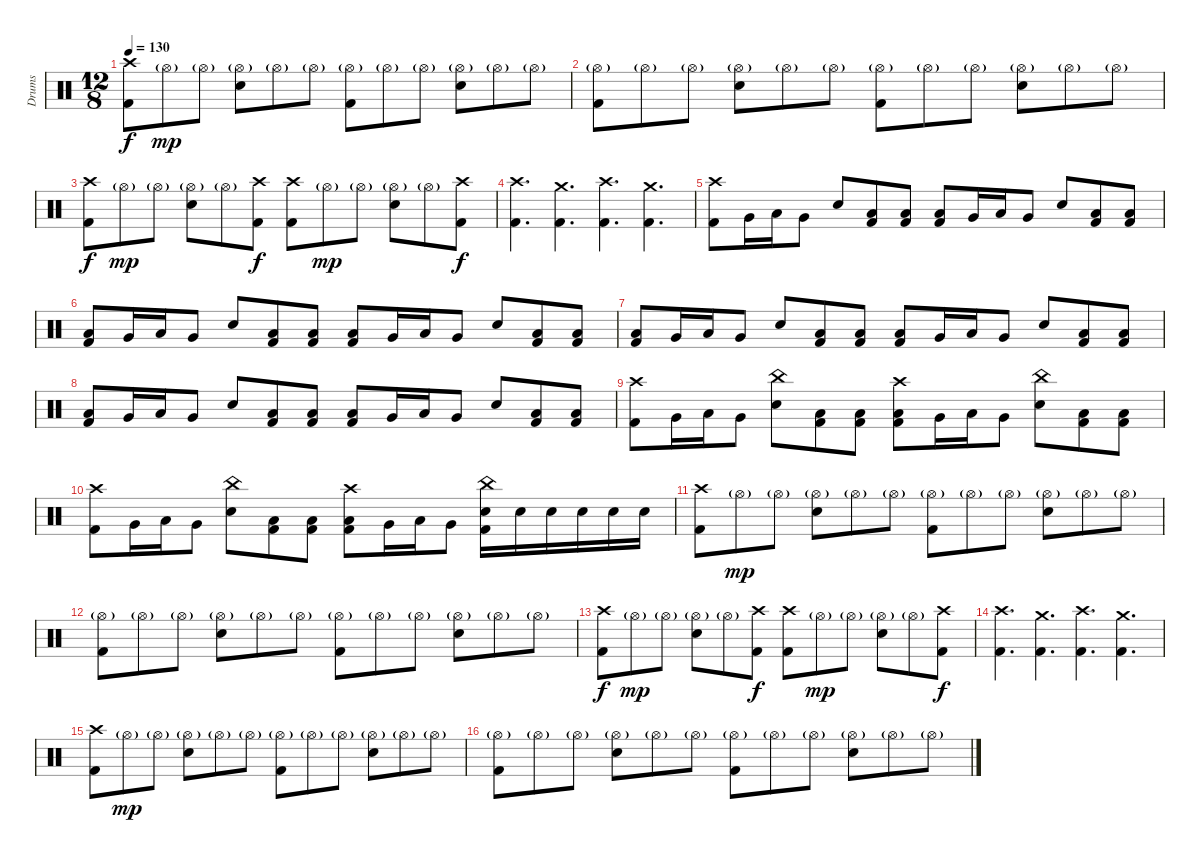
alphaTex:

\track ("Drums" "Drums") {instrument percussion}
\staff {score}
\articulation defaults
\ts (12 8)
\tempo 130
\clef neutral
\ks c
("Crash high (hit)" "Kick (hit) 2").8{dy f} "Hi-Hat (open)"{g}.8{dy mp} "Hi-Hat (open)"{g}.8 ("Hi-Hat (open)"{g} "Electric Snare (hit)").8 "Hi-Hat (open)"{g}.8 "Hi-Hat (open)"{g}.8 ("Hi-Hat (open)"{g} "Kick (hit) 2").8 "Hi-Hat (open)"{g}.8 "Hi-Hat (open)"{g}.8 ("Hi-Hat (open)"{g} "Electric Snare (hit)").8 "Hi-Hat (open)"{g}.8 "Hi-Hat (open)"{g}.8 |
("Hi-Hat (open)"{g} "Kick (hit) 2").8 "Hi-Hat (open)"{g}.8 "Hi-Hat (open)"{g}.8 ("Hi-Hat (open)"{g} "Electric Snare (hit)").8 "Hi-Hat (open)"{g}.8 "Hi-Hat (open)"{g}.8 ("Hi-Hat (open)"{g} "Kick (hit) 2").8 "Hi-Hat (open)"{g}.8 "Hi-Hat (open)"{g}.8 ("Hi-Hat (open)"{g} "Electric Snare (hit)").8 "Hi-Hat (open)"{g}.8 "Hi-Hat (open)"{g}.8 |
("Crash high (hit)" "Kick (hit) 2").8{dy f} "Hi-Hat (open)"{g}.8{dy mp} "Hi-Hat (open)"{g}.8 ("Hi-Hat (open)"{g} "Electric Snare (hit)").8 "Hi-Hat (open)"{g}.8 ("Crash high (hit)" "Kick (hit) 2").8{dy f} ("Crash high (hit)" "Kick (hit) 2").8 "Hi-Hat (open)"{g}.8{dy mp} "Hi-Hat (open)"{g}.8 ("Hi-Hat (open)"{g} "Electric Snare (hit)").8 "Hi-Hat (open)"{g}.8 ("Crash high (hit)" "Kick (hit) 2").8{dy f} |
("Crash high (hit)" "Kick (hit) 2").4{d} ("Crash medium (hit)" "Kick (hit) 2").4{d} ("Crash high (hit)" "Kick (hit) 2").4{d} ("Crash medium (hit)" "Kick (hit) 2").4{d} |
("Crash high (hit)" "Kick (hit) 2").8 "Very Low Tom (hit)".16 "Low Tom (hit)".16 "Very Low Tom (hit)".8 "Electric Snare (hit)".8 ("Low Floor Tom (hit)" "Kick (hit) 2").8 ("Low Floor Tom (hit)" "Kick (hit) 2").8 ("Low Tom (hit)" "Kick (hit) 2").8 "Very Low Tom (hit)".16 "Low Tom (hit)".16 "Very Low Tom (hit)".8 "Electric Snare (hit)".8 ("Low Floor Tom (hit)" "Kick (hit) 2").8 ("Low Floor Tom (hit)" "Kick (hit) 2").8 |
("Low Tom (hit)" "Kick (hit) 2").8 "Very Low Tom (hit)".16 "Low Tom (hit)".16 "Very Low Tom (hit)".8 "Electric Snare (hit)".8 ("Low Floor Tom (hit)" "Kick (hit) 2").8 ("Low Floor Tom (hit)" "Kick (hit) 2").8 ("Low Tom (hit)" "Kick (hit) 2").8 "Very Low Tom (hit)".16 "Low Tom (hit)".16 "Very Low Tom (hit)".8 "Electric Snare (hit)".8 ("Low Floor Tom (hit)" "Kick (hit) 2").8 ("Low Floor Tom (hit)" "Kick (hit) 2").8 |
("Low Tom (hit)" "Kick (hit) 2").8 "Very Low Tom (hit)".16 "Low Tom (hit)".16 "Very Low Tom (hit)".8 "Electric Snare (hit)".8 ("Low Floor Tom (hit)" "Kick (hit) 2").8 ("Low Floor Tom (hit)" "Kick (hit) 2").8 ("Low Tom (hit)" "Kick (hit) 2").8 "Very Low Tom (hit)".16 "Low Tom (hit)".16 "Very Low Tom (hit)".8 "Electric Snare (hit)".8 ("Low Floor Tom (hit)" "Kick (hit) 2").8 ("Low Floor Tom (hit)" "Kick (hit) 2").8 |
("Low Tom (hit)" "Kick (hit) 2").8 "Very Low Tom (hit)".16 "Low Tom (hit)".16 "Very Low Tom (hit)".8 "Electric Snare (hit)".8 ("Low Floor Tom (hit)" "Kick (hit) 2").8 ("Low Floor Tom (hit)" "Kick (hit) 2").8 ("Low Tom (hit)" "Kick (hit) 2").8 "Very Low Tom (hit)".16 "Low Tom (hit)".16 "Very Low Tom (hit)".8 "Electric Snare (hit)".8 ("Low Floor Tom (hit)" "Kick (hit) 2").8 ("Low Floor Tom (hit)" "Kick (hit) 2").8 |
("Crash high (hit)" "Kick (hit) 2").8 "Very Low Tom (hit)".16 "Low Tom (hit)".16 "Very Low Tom (hit)".8 ("China (hit)" "Electric Snare (hit)").8 ("Low Floor Tom (hit)" "Kick (hit) 2").8 ("Low Floor Tom (hit)" "Kick (hit) 2").8 ("Crash high (hit)" "Low Tom (hit)" "Kick (hit) 2").8 "Very Low Tom (hit)".16 "Low Tom (hit)".16 "Very Low Tom (hit)".8 ("China (hit)" "Electric Snare (hit)").8 ("Low Floor Tom (hit)" "Kick (hit) 2").8 ("Low Floor Tom (hit)" "Kick (hit) 2").8 |
("Crash high (hit)" "Kick (hit) 2").8 "Very Low Tom (hit)".16 "Low Tom (hit)".16 "Very Low Tom (hit)".8 ("China (hit)" "Electric Snare (hit)").8 ("Low Floor Tom (hit)" "Kick (hit) 2").8 ("Low Floor Tom (hit)" "Kick (hit) 2").8 ("Crash high (hit)" "Low Tom (hit)" "Kick (hit) 2").8 "Very Low Tom (hit)".16 "Low Tom (hit)".16 "Very Low Tom (hit)".8 ("China (hit)" "Electric Snare (hit)" "Kick (hit) 2").16 "Electric Snare (hit)".16 "Electric Snare (hit)".16 "Electric Snare (hit)".16 "Electric Snare (hit)".16 "Electric Snare (hit)".16 |
("Crash high (hit)" "Kick (hit) 2").8 "Hi-Hat (open)"{g}.8{dy mp} "Hi-Hat (open)"{g}.8 ("Hi-Hat (open)"{g} "Electric Snare (hit)").8 "Hi-Hat (open)"{g}.8 "Hi-Hat (open)"{g}.8 ("Hi-Hat (open)"{g} "Kick (hit) 2").8 "Hi-Hat (open)"{g}.8 "Hi-Hat (open)"{g}.8 ("Hi-Hat (open)"{g} "Electric Snare (hit)").8 "Hi-Hat (open)"{g}.8 "Hi-Hat (open)"{g}.8 |
("Hi-Hat (open)"{g} "Kick (hit) 2").8 "Hi-Hat (open)"{g}.8 "Hi-Hat (open)"{g}.8 ("Hi-Hat (open)"{g} "Electric Snare (hit)").8 "Hi-Hat (open)"{g}.8 "Hi-Hat (open)"{g}.8 ("Hi-Hat (open)"{g} "Kick (hit) 2").8 "Hi-Hat (open)"{g}.8 "Hi-Hat (open)"{g}.8 ("Hi-Hat (open)"{g} "Electric Snare (hit)").8 "Hi-Hat (open)"{g}.8 "Hi-Hat (open)"{g}.8 |
("Crash high (hit)" "Kick (hit) 2").8{dy f} "Hi-Hat (open)"{g}.8{dy mp} "Hi-Hat (open)"{g}.8 ("Hi-Hat (open)"{g} "Electric Snare (hit)").8 "Hi-Hat (open)"{g}.8 ("Crash high (hit)" "Kick (hit) 2").8{dy f} ("Crash high (hit)" "Kick (hit) 2").8 "Hi-Hat (open)"{g}.8{dy mp} "Hi-Hat (open)"{g}.8 ("Hi-Hat (open)"{g} "Electric Snare (hit)").8 "Hi-Hat (open)"{g}.8 ("Crash high (hit)" "Kick (hit) 2").8{dy f} |
("Crash high (hit)" "Kick (hit) 2").4{d} ("Crash medium (hit)" "Kick (hit) 2").4{d} ("Crash high (hit)" "Kick (hit) 2").4{d} ("Crash medium (hit)" "Kick (hit) 2").4{d} |
("Crash high (hit)" "Kick (hit) 2").8 "Hi-Hat (open)"{g}.8{dy mp} "Hi-Hat (open)"{g}.8 ("Hi-Hat (open)"{g} "Electric Snare (hit)").8 "Hi-Hat (open)"{g}.8 "Hi-Hat (open)"{g}.8 ("Hi-Hat (open)"{g} "Kick (hit) 2").8 "Hi-Hat (open)"{g}.8 "Hi-Hat (open)"{g}.8 ("Hi-Hat (open)"{g} "Electric Snare (hit)").8 "Hi-Hat (open)"{g}.8 "Hi-Hat (open)"{g}.8 |
("Hi-Hat (open)"{g} "Kick (hit) 2").8 "Hi-Hat (open)"{g}.8 "Hi-Hat (open)"{g}.8 ("Hi-Hat (open)"{g} "Electric Snare (hit)").8 "Hi-Hat (open)"{g}.8 "Hi-Hat (open)"{g}.8 ("Hi-Hat (open)"{g} "Kick (hit) 2").8 "Hi-Hat (open)"{g}.8 "Hi-Hat (open)"{g}.8 ("Hi-Hat (open)"{g} "Electric Snare (hit)").8 "Hi-Hat (open)"{g}.8 "Hi-Hat (open)"{g}.8
